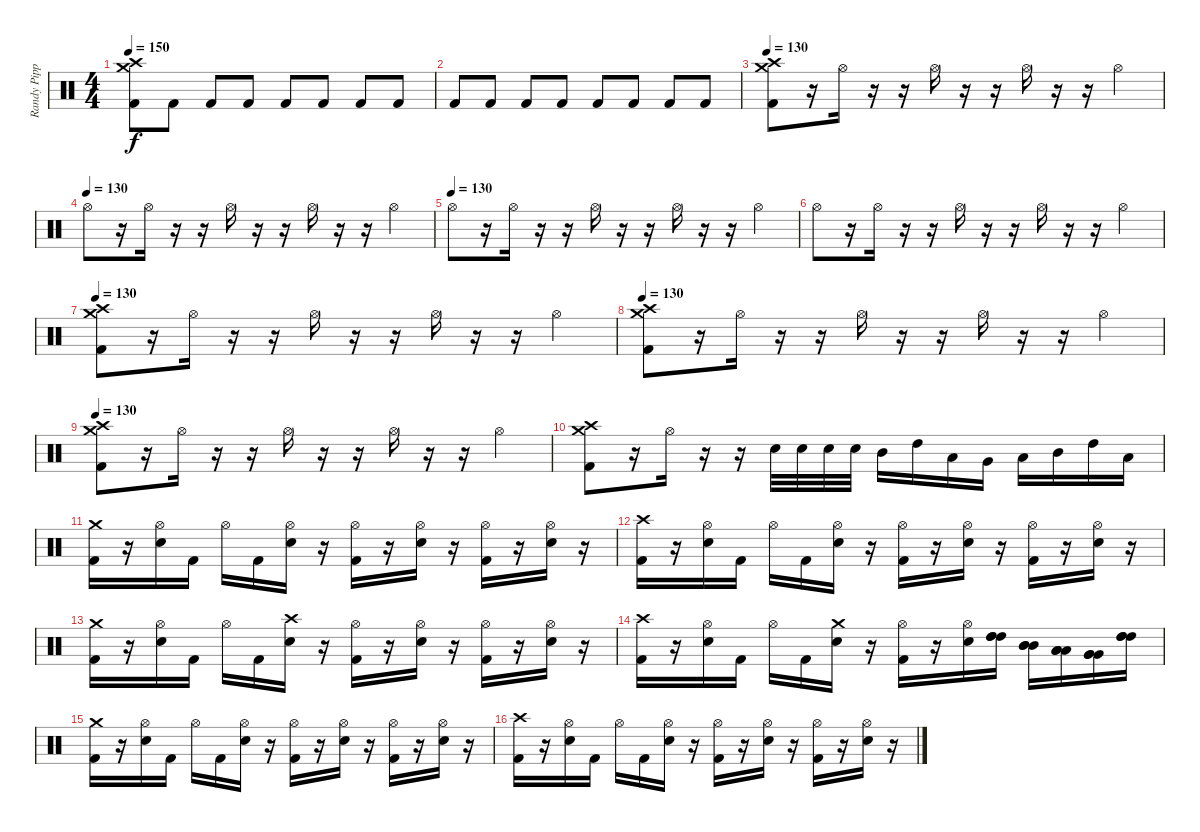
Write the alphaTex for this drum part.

\track ("Randy Pipper" "Randy Pipp") {instrument percussion}
\staff {score}
\articulation defaults
\ts (4 4)
\tempo 150
\clef neutral
\ks c
("Crash medium (hit)" "Crash high (hit)" "Kick (hit) 2").8{dy f} "Kick (hit) 2".8 "Kick (hit) 2".8 "Kick (hit) 2".8 "Kick (hit) 2".8 "Kick (hit) 2".8 "Kick (hit) 2".8 "Kick (hit) 2".8 |
"Kick (hit) 2".8 "Kick (hit) 2".8 "Kick (hit) 2".8 "Kick (hit) 2".8 "Kick (hit) 2".8 "Kick (hit) 2".8 "Kick (hit) 2".8 "Kick (hit) 2".8 |
\tempo 130
("Kick (hit) 2" "Crash high (hit)" "Crash medium (hit)").8 r.16 "Hi-Hat (open)".16 r.16 r.16 "Hi-Hat (open)".16 r.16 r.16 "Hi-Hat (open)".16 r.16 r.16 "Hi-Hat (open)".4 |
\tempo (130)
"Hi-Hat (open)".8 r.16 "Hi-Hat (open)".16 r.16 r.16 "Hi-Hat (open)".16 r.16 r.16 "Hi-Hat (open)".16 r.16 r.16 "Hi-Hat (open)".4 |
\tempo (130)
"Hi-Hat (open)".8 r.16 "Hi-Hat (open)".16 r.16 r.16 "Hi-Hat (open)".16 r.16 r.16 "Hi-Hat (open)".16 r.16 r.16 "Hi-Hat (open)".4 |
"Hi-Hat (open)".8 r.16 "Hi-Hat (open)".16 r.16 r.16 "Hi-Hat (open)".16 r.16 r.16 "Hi-Hat (open)".16 r.16 r.16 "Hi-Hat (open)".4 |
\tempo 130
("Kick (hit) 2" "Crash high (hit)" "Crash medium (hit)").8 r.16 "Hi-Hat (open)".16 r.16 r.16 "Hi-Hat (open)".16 r.16 r.16 "Hi-Hat (open)".16 r.16 r.16 "Hi-Hat (open)".4 |
\tempo 130
("Crash high (hit)" "Kick (hit) 2" "Crash medium (hit)").8 r.16 "Hi-Hat (open)".16 r.16 r.16 "Hi-Hat (open)".16 r.16 r.16 "Hi-Hat (open)".16 r.16 r.16 "Hi-Hat (open)".4 |
\tempo 130
("Crash medium (hit)" "Kick (hit) 2" "Crash high (hit)").8 r.16 "Hi-Hat (open)".16 r.16 r.16 "Hi-Hat (open)".16 r.16 r.16 "Hi-Hat (open)".16 r.16 r.16 "Hi-Hat (open)".4 |
("Crash medium (hit)" "Kick (hit) 2" "Crash high (hit)").8 r.16 "Hi-Hat (open)".16 r.16 r.16 "Snare (hit) 2".32 "Snare (hit) 2".32 "Snare (hit) 2".32 "Snare (hit) 2".32 "Mid Tom (hit)".16 "High Tom (hit)".16 "Low Tom (hit)".16 "Very Low Tom (hit)".16 "Low Tom (hit)".16 "Mid Tom (hit)".16 "High Tom (hit)".16 "Low Tom (hit)".16 |
("Crash medium (hit)" "Kick (hit) 2").16 r.16 ("Hi-Hat (open)" "Snare (hit) 2").16 "Kick (hit) 2".16 "Hi-Hat (open)".16 "Kick (hit) 2".16 ("Hi-Hat (open)" "Snare (hit) 2").16 r.16 ("Hi-Hat (open)" "Kick (hit) 2").16 r.16 ("Hi-Hat (open)" "Snare (hit) 2").16 r.16 ("Hi-Hat (open)" "Kick (hit) 2").16 r.16 ("Hi-Hat (open)" "Snare (hit) 2").16 r.16 |
("Crash high (hit)" "Kick (hit) 2").16 r.16 ("Hi-Hat (open)" "Snare (hit) 2").16 "Kick (hit) 2".16 "Hi-Hat (open)".16 "Kick (hit) 2".16 ("Hi-Hat (open)" "Snare (hit) 2").16 r.16 ("Hi-Hat (open)" "Kick (hit) 2").16 r.16 ("Hi-Hat (open)" "Snare (hit) 2").16 r.16 ("Hi-Hat (open)" "Kick (hit) 2").16 r.16 ("Hi-Hat (open)" "Snare (hit) 2").16 r.16 |
("Crash medium (hit)" "Kick (hit) 2").16 r.16 ("Hi-Hat (open)" "Snare (hit) 2").16 "Kick (hit) 2".16 "Hi-Hat (open)".16 "Kick (hit) 2".16 ("Crash high (hit)" "Snare (hit) 2").16 r.16 ("Hi-Hat (open)" "Kick (hit) 2").16 r.16 ("Hi-Hat (open)" "Snare (hit) 2").16 r.16 ("Hi-Hat (open)" "Kick (hit) 2").16 r.16 ("Hi-Hat (open)" "Snare (hit) 2").16 r.16 |
("Crash high (hit)" "Kick (hit) 2").16 r.16 ("Hi-Hat (open)" "Snare (hit) 2").16 "Kick (hit) 2".16 "Hi-Hat (open)".16 "Kick (hit) 2".16 ("Crash medium (hit)" "Snare (hit) 2").16 r.16 ("Hi-Hat (open)" "Kick (hit) 2").16 r.16 ("Hi-Hat (open)" "Snare (hit) 2").16 ("High Tom (hit)" "High Tom (hit)" "High Tom (hit)").16 ("Mid Tom (hit)" "Mid Tom (hit)" "Mid Tom (hit)").16 ("Low Tom (hit)" "Low Tom (hit)" "Low Tom (hit)").16 ("Very Low Tom (hit)" "Very Low Tom (hit)" "Very Low Tom (hit)").16 ("High Tom (hit)" "High Tom (hit)" "High Tom (hit)").16 |
("Crash medium (hit)" "Kick (hit) 2").16 r.16 ("Hi-Hat (open)" "Snare (hit) 2").16 "Kick (hit) 2".16 "Hi-Hat (open)".16 "Kick (hit) 2".16 ("Hi-Hat (open)" "Snare (hit) 2").16 r.16 ("Hi-Hat (open)" "Kick (hit) 2").16 r.16 ("Hi-Hat (open)" "Snare (hit) 2").16 r.16 ("Hi-Hat (open)" "Kick (hit) 2").16 r.16 ("Hi-Hat (open)" "Snare (hit) 2").16 r.16 |
("Crash high (hit)" "Kick (hit) 2").16 r.16 ("Hi-Hat (open)" "Snare (hit) 2").16 "Kick (hit) 2".16 "Hi-Hat (open)".16 "Kick (hit) 2".16 ("Hi-Hat (open)" "Snare (hit) 2").16 r.16 ("Hi-Hat (open)" "Kick (hit) 2").16 r.16 ("Hi-Hat (open)" "Snare (hit) 2").16 r.16 ("Hi-Hat (open)" "Kick (hit) 2").16 r.16 ("Hi-Hat (open)" "Snare (hit) 2").16 r.16
